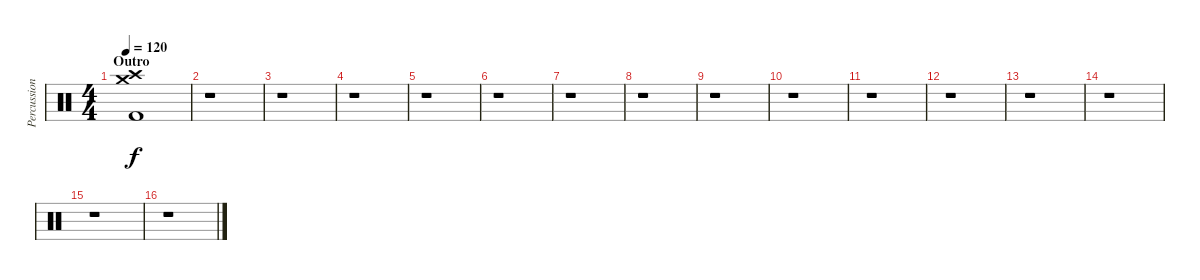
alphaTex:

\track ("Percussion" "Percussion") {instrument percussion}
\staff {score}
\articulation defaults
\ts (4 4)
\section ("" "Outro")
\tempo 120
\clef neutral
\ks c
("Kick (hit) 2" "Crash medium (hit)" "Crash high (hit)").1{dy f} |
r.1 |
r.1 |
r.1 |
r.1 |
r.1 |
r.1 |
r.1 |
r.1 |
r.1 |
r.1 |
r.1 |
r.1 |
r.1 |
r.1 |
r.1
